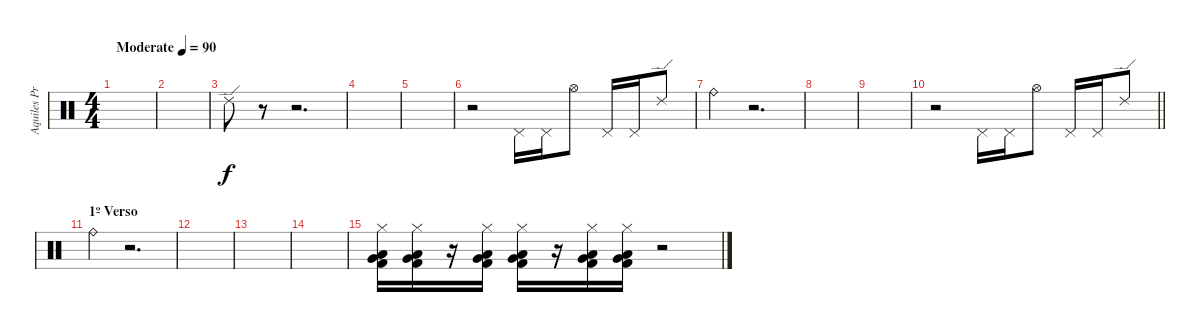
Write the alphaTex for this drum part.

\track ("Aquiles Priester" "Aquiles Pr") {instrument percussion}
\staff {score}
\articulation defaults
\ts (4 4)
\tempo (90 "Moderate")
\clef neutral
\ks c
|
|
"Ride (edge) 2".8 r.8 r.2{d} |
|
|
r.2 "Pedal Hi-Hat (hit)".16 "Pedal Hi-Hat (hit)".16 "Hi-Hat (open)".8 "Pedal Hi-Hat (hit)".16 "Pedal Hi-Hat (hit)".16 "Ride (edge) 2".8 |
"Ride (bell)".4 r.2{d} |
|
|
\barLineRight lightlight
r.2 "Pedal Hi-Hat (hit)".16 "Pedal Hi-Hat (hit)".16 "Hi-Hat (open)".8 "Pedal Hi-Hat (hit)".16 "Pedal Hi-Hat (hit)".16 "Ride (edge) 2".8 |
\section ("" "1º Verso")
"Ride (bell)".4 r.2{d} |
|
|
|
("Hi-Hat (closed)" "Very Low Tom (hit)" "Low Floor Tom (hit)" "Kick (hit) 2").16 ("Hi-Hat (closed)" "Very Low Tom (hit)" "Low Floor Tom (hit)" "Kick (hit) 2").16 r.16 ("Hi-Hat (closed)" "Very Low Tom (hit)" "Low Floor Tom (hit)" "Kick (hit) 2").16 ("Hi-Hat (closed)" "Very Low Tom (hit)" "Low Floor Tom (hit)" "Kick (hit) 2").16 r.16 ("Hi-Hat (closed)" "Very Low Tom (hit)" "Low Floor Tom (hit)" "Kick (hit) 2").16 ("Hi-Hat (closed)" "Very Low Tom (hit)" "Low Floor Tom (hit)" "Kick (hit) 2").16 r.2
